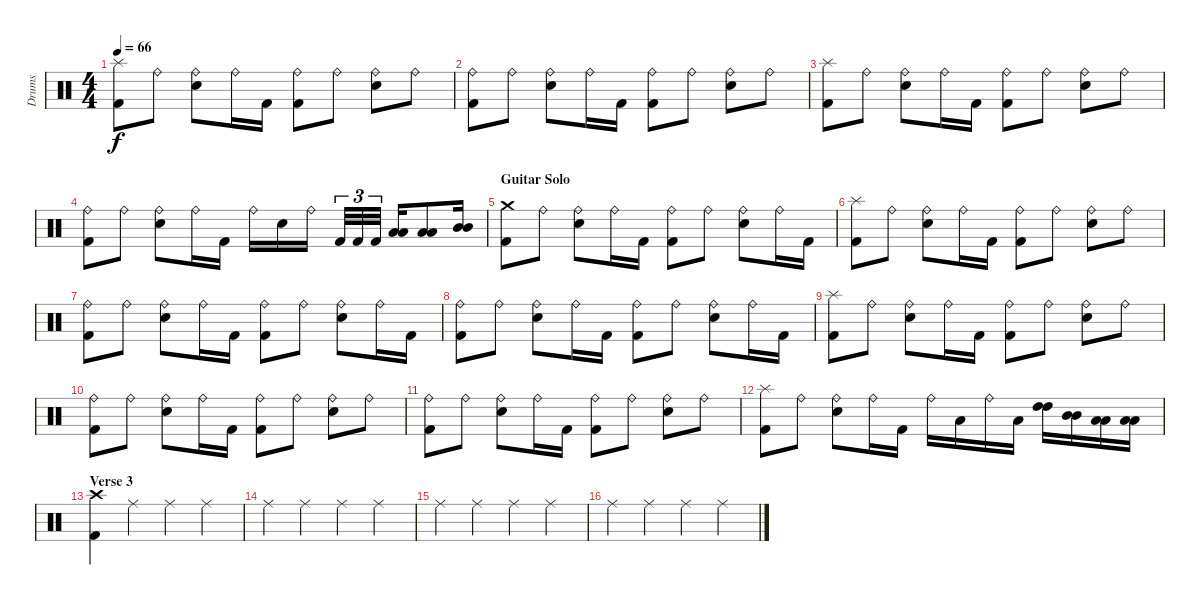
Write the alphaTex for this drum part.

\track ("Drums" "Drums") {instrument percussion}
\staff {score}
\articulation defaults
\ts (4 4)
\tempo 66
\clef neutral
\ks c
("Splash (hit)" "Kick (hit) 2").8{dy f} "Ride (bell)".8 ("Ride (bell)" "Snare (hit) 2").8 "Ride (bell)".16 "Kick (hit) 2".16 ("Ride (bell)" "Kick (hit) 2").8 "Ride (bell)".8 ("Ride (bell)" "Snare (hit) 2").8 "Ride (bell)".8 |
("Ride (bell)" "Kick (hit) 2").8 "Ride (bell)".8 ("Ride (bell)" "Snare (hit) 2").8 "Ride (bell)".16 "Kick (hit) 2".16 ("Ride (bell)" "Kick (hit) 2").8 "Ride (bell)".8 ("Ride (bell)" "Snare (hit) 2").8 "Ride (bell)".8 |
("Splash (hit)" "Kick (hit) 2").8 "Ride (bell)".8 ("Ride (bell)" "Snare (hit) 2").8 "Ride (bell)".16 "Kick (hit) 2".16 ("Ride (bell)" "Kick (hit) 2").8 "Ride (bell)".8 ("Ride (bell)" "Snare (hit) 2").8 "Ride (bell)".8 |
("Ride (bell)" "Kick (hit) 2").8 "Ride (bell)".8 ("Ride (bell)" "Snare (hit) 2").8 "Ride (bell)".16 "Kick (hit) 2".16 "Ride (bell)".16 "Snare (hit) 2".16 "Ride (bell)".16 "Kick (hit) 2".32{tu (3 2)} "Kick (hit) 2".32{tu (3 2)} "Kick (hit) 2".32{tu (3 2)} ("Low Tom (hit)" "Low Tom (hit)").16 ("Low Tom (hit)" "Low Tom (hit)").8 ("Mid Tom (hit)" "Mid Tom (hit)").16 |
\section ("" "Guitar Solo")
("Crash medium (hit)" "Kick (hit) 2").8 "Ride (bell)".8 ("Ride (bell)" "Snare (hit) 2").8 "Ride (bell)".16 "Kick (hit) 2".16 ("Ride (bell)" "Kick (hit) 2").8 "Ride (bell)".8 ("Ride (bell)" "Snare (hit) 2").8 "Ride (bell)".16 "Kick (hit) 2".16 |
("Splash (hit)" "Kick (hit) 2").8 "Ride (bell)".8 ("Ride (bell)" "Snare (hit) 2").8 "Ride (bell)".16 "Kick (hit) 2".16 ("Ride (bell)" "Kick (hit) 2").8 "Ride (bell)".8 ("Ride (bell)" "Snare (hit) 2").8 "Ride (bell)".8 |
("Ride (bell)" "Kick (hit) 2").8 "Ride (bell)".8 ("Ride (bell)" "Snare (hit) 2").8 "Ride (bell)".16 "Kick (hit) 2".16 ("Ride (bell)" "Kick (hit) 2").8 "Ride (bell)".8 ("Ride (bell)" "Snare (hit) 2").8 "Ride (bell)".16 "Kick (hit) 2".16 |
("Ride (bell)" "Kick (hit) 2").8 "Ride (bell)".8 ("Ride (bell)" "Snare (hit) 2").8 "Ride (bell)".16 "Kick (hit) 2".16 ("Ride (bell)" "Kick (hit) 2").8 "Ride (bell)".8 ("Ride (bell)" "Snare (hit) 2").8 "Ride (bell)".16 "Kick (hit) 2".16 |
("Splash (hit)" "Kick (hit) 2").8 "Ride (bell)".8 ("Ride (bell)" "Snare (hit) 2").8 "Ride (bell)".16 "Kick (hit) 2".16 ("Ride (bell)" "Kick (hit) 2").8 "Ride (bell)".8 ("Ride (bell)" "Snare (hit) 2").8 "Ride (bell)".8 |
("Ride (bell)" "Kick (hit) 2").8 "Ride (bell)".8 ("Ride (bell)" "Snare (hit) 2").8 "Ride (bell)".16 "Kick (hit) 2".16 ("Ride (bell)" "Kick (hit) 2").8 "Ride (bell)".8 ("Ride (bell)" "Snare (hit) 2").8 "Ride (bell)".8 |
("Ride (bell)" "Kick (hit) 2").8 "Ride (bell)".8 ("Ride (bell)" "Snare (hit) 2").8 "Ride (bell)".16 "Kick (hit) 2".16 ("Ride (bell)" "Kick (hit) 2").8 "Ride (bell)".8 ("Ride (bell)" "Snare (hit) 2").8 "Ride (bell)".8 |
("Splash (hit)" "Kick (hit) 2").8 "Ride (bell)".8 ("Ride (bell)" "Snare (hit) 2").8 "Ride (bell)".16 "Kick (hit) 2".16 "Ride (bell)".16 "Low Tom (hit)".16 "Ride (bell)".16 "Low Tom (hit)".16 ("High Tom (hit)" "High Tom (hit)").16 ("Mid Tom (hit)" "Mid Tom (hit)").16 ("Low Tom (hit)" "Low Tom (hit)").16 ("Low Floor Tom (hit)" "Low Floor Tom (hit)").16 |
\section ("" "Verse 3")
("Crash high (hit)" "Kick (hit) 2").4 "Ride (middle)".4 "Ride (middle)".4 "Ride (middle)".4 |
"Ride (middle)".4 "Ride (middle)".4 "Ride (middle)".4 "Ride (middle)".4 |
"Ride (middle)".4 "Ride (middle)".4 "Ride (middle)".4 "Ride (middle)".4 |
"Ride (middle)".4 "Ride (middle)".4 "Ride (middle)".4 "Ride (middle)".4
